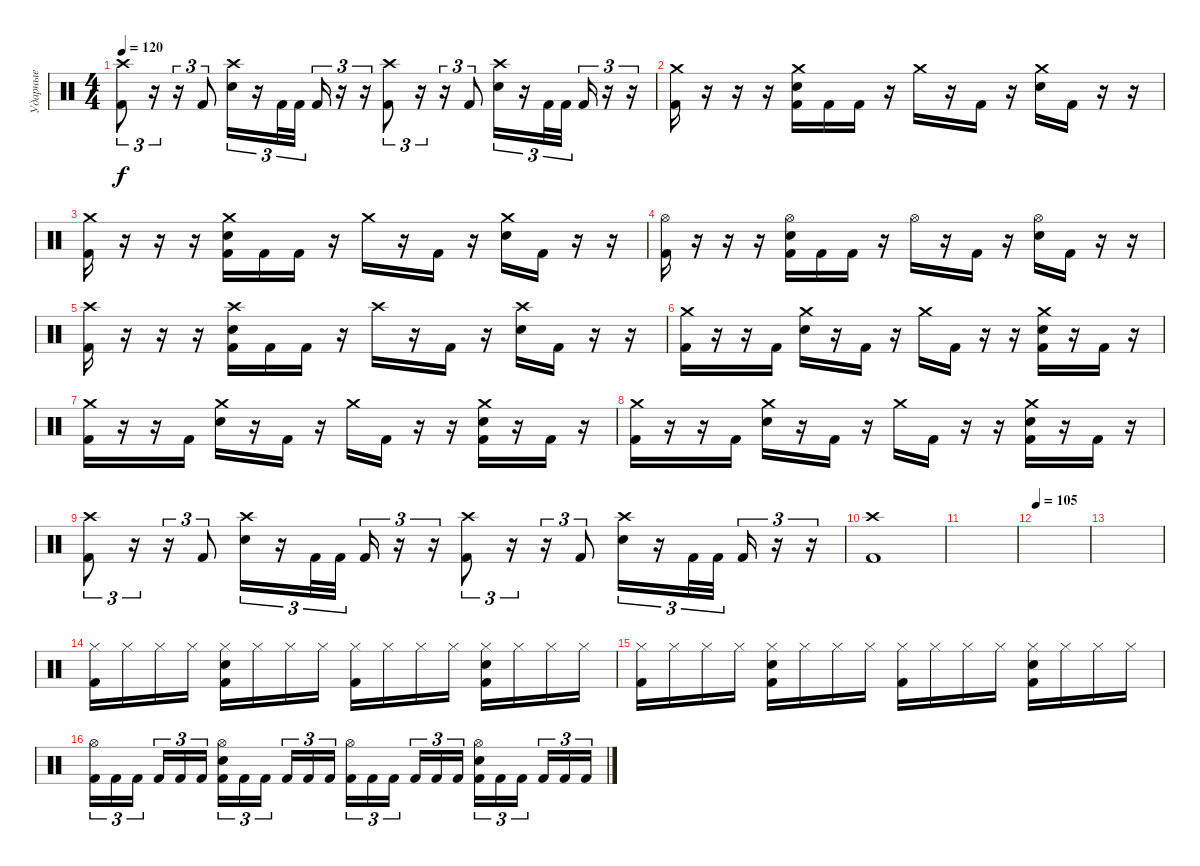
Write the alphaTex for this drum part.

\track ("Ударные" "Ударные") {instrument percussion}
\staff {score}
\articulation defaults
\ts (4 4)
\tempo 120
\clef neutral
\ks c
("Crash high (hit)" "Kick (hit) 2").8{tu (3 2) dy f} r.16{tu (3 2)} r.16{tu (3 2)} "Kick (hit) 2".8{tu (3 2)} ("Crash high (hit)" "Electric Snare (hit)").16{tu (3 2)} r.16{tu (3 2)} "Kick (hit) 2".32{tu (3 2)} "Kick (hit) 2".32{tu (3 2) beam splitsecondary} "Kick (hit) 2".16{tu (3 2)} r.16{tu (3 2)} r.16{tu (3 2)} ("Crash high (hit)" "Kick (hit) 2").8{tu (3 2)} r.16{tu (3 2)} r.16{tu (3 2)} "Kick (hit) 2".8{tu (3 2)} ("Crash high (hit)" "Electric Snare (hit)").16{tu (3 2)} r.16{tu (3 2)} "Kick (hit) 2".32{tu (3 2)} "Kick (hit) 2".32{tu (3 2) beam splitsecondary} "Kick (hit) 2".16{tu (3 2)} r.16{tu (3 2)} r.16{tu (3 2)} |
("Crash medium (hit)" "Kick (hit) 2").16 r.16 r.16 r.16 ("Crash medium (hit)" "Electric Snare (hit)" "Kick (hit) 2").16 "Kick (hit) 2".16 "Kick (hit) 2".16 r.16 "Crash medium (hit)".16 r.16 "Kick (hit) 2".16 r.16 ("Crash medium (hit)" "Electric Snare (hit)").16 "Kick (hit) 2".16 r.16 r.16 |
("Crash medium (hit)" "Kick (hit) 2").16 r.16 r.16 r.16 ("Crash medium (hit)" "Electric Snare (hit)" "Kick (hit) 2").16 "Kick (hit) 2".16 "Kick (hit) 2".16 r.16 "Crash medium (hit)".16 r.16 "Kick (hit) 2".16 r.16 ("Crash medium (hit)" "Electric Snare (hit)").16 "Kick (hit) 2".16 r.16 r.16 |
("Hi-Hat (open)" "Kick (hit) 2").16 r.16 r.16 r.16 ("Hi-Hat (open)" "Electric Snare (hit)" "Kick (hit) 2").16 "Kick (hit) 2".16 "Kick (hit) 2".16 r.16 "Hi-Hat (open)".16 r.16 "Kick (hit) 2".16 r.16 ("Hi-Hat (open)" "Electric Snare (hit)").16 "Kick (hit) 2".16 r.16 r.16 |
("Crash high (hit)" "Kick (hit) 2").16 r.16 r.16 r.16 ("Crash high (hit)" "Electric Snare (hit)" "Kick (hit) 2").16 "Kick (hit) 2".16 "Kick (hit) 2".16 r.16 "Crash high (hit)".16 r.16 "Kick (hit) 2".16 r.16 ("Crash high (hit)" "Electric Snare (hit)").16 "Kick (hit) 2".16 r.16 r.16 |
("Crash medium (hit)" "Kick (hit) 2").16 r.16 r.16 "Kick (hit) 2".16 ("Crash medium (hit)" "Electric Snare (hit)").16 r.16 "Kick (hit) 2".16 r.16 "Crash medium (hit)".16 "Kick (hit) 2".16 r.16 r.16 ("Crash medium (hit)" "Electric Snare (hit)" "Kick (hit) 2").16 r.16 "Kick (hit) 2".16 r.16 |
("Crash medium (hit)" "Kick (hit) 2").16 r.16 r.16 "Kick (hit) 2".16 ("Crash medium (hit)" "Electric Snare (hit)").16 r.16 "Kick (hit) 2".16 r.16 "Crash medium (hit)".16 "Kick (hit) 2".16 r.16 r.16 ("Crash medium (hit)" "Electric Snare (hit)" "Kick (hit) 2").16 r.16 "Kick (hit) 2".16 r.16 |
("Crash medium (hit)" "Kick (hit) 2").16 r.16 r.16 "Kick (hit) 2".16 ("Crash medium (hit)" "Electric Snare (hit)").16 r.16 "Kick (hit) 2".16 r.16 "Crash medium (hit)".16 "Kick (hit) 2".16 r.16 r.16 ("Crash medium (hit)" "Electric Snare (hit)" "Kick (hit) 2").16 r.16 "Kick (hit) 2".16 r.16 |
("Crash high (hit)" "Kick (hit) 2").8{tu (3 2)} r.16{tu (3 2)} r.16{tu (3 2)} "Kick (hit) 2".8{tu (3 2)} ("Crash high (hit)" "Electric Snare (hit)").16{tu (3 2)} r.16{tu (3 2)} "Kick (hit) 2".32{tu (3 2)} "Kick (hit) 2".32{tu (3 2) beam splitsecondary} "Kick (hit) 2".16{tu (3 2)} r.16{tu (3 2)} r.16{tu (3 2)} ("Crash high (hit)" "Kick (hit) 2").8{tu (3 2)} r.16{tu (3 2)} r.16{tu (3 2)} "Kick (hit) 2".8{tu (3 2)} ("Crash high (hit)" "Electric Snare (hit)").16{tu (3 2)} r.16{tu (3 2)} "Kick (hit) 2".32{tu (3 2)} "Kick (hit) 2".32{tu (3 2) beam splitsecondary} "Kick (hit) 2".16{tu (3 2)} r.16{tu (3 2)} r.16{tu (3 2)} |
("Crash high (hit)" "Kick (hit) 2").1 |
|
\tempo 105
|
|
("Hi-Hat (closed)" "Kick (hit) 2").16 "Hi-Hat (closed)".16 "Hi-Hat (closed)".16 "Hi-Hat (closed)".16 ("Hi-Hat (closed)" "Electric Snare (hit)" "Kick (hit) 2").16 "Hi-Hat (closed)".16 "Hi-Hat (closed)".16 "Hi-Hat (closed)".16 ("Hi-Hat (closed)" "Kick (hit) 2").16 "Hi-Hat (closed)".16 "Hi-Hat (closed)".16 "Hi-Hat (closed)".16 ("Hi-Hat (closed)" "Electric Snare (hit)" "Kick (hit) 2").16 "Hi-Hat (closed)".16 "Hi-Hat (closed)".16 "Hi-Hat (closed)".16 |
("Hi-Hat (closed)" "Kick (hit) 2").16 "Hi-Hat (closed)".16 "Hi-Hat (closed)".16 "Hi-Hat (closed)".16 ("Hi-Hat (closed)" "Electric Snare (hit)" "Kick (hit) 2").16 "Hi-Hat (closed)".16 "Hi-Hat (closed)".16 "Hi-Hat (closed)".16 ("Hi-Hat (closed)" "Kick (hit) 2").16 "Hi-Hat (closed)".16 "Hi-Hat (closed)".16 "Hi-Hat (closed)".16 ("Hi-Hat (closed)" "Electric Snare (hit)" "Kick (hit) 2").16 "Hi-Hat (closed)".16 "Hi-Hat (closed)".16 "Hi-Hat (closed)".16 |
("Hi-Hat (open)" "Kick (hit) 2").16{tu (3 2)} "Kick (hit) 2".16{tu (3 2)} "Kick (hit) 2".16{tu (3 2) beam splitsecondary} "Kick (hit) 2".16{tu (3 2)} "Kick (hit) 2".16{tu (3 2)} "Kick (hit) 2".16{tu (3 2)} ("Hi-Hat (open)" "Electric Snare (hit)" "Kick (hit) 2").16{tu (3 2)} "Kick (hit) 2".16{tu (3 2)} "Kick (hit) 2".16{tu (3 2) beam splitsecondary} "Kick (hit) 2".16{tu (3 2)} "Kick (hit) 2".16{tu (3 2)} "Kick (hit) 2".16{tu (3 2)} ("Hi-Hat (open)" "Kick (hit) 2").16{tu (3 2)} "Kick (hit) 2".16{tu (3 2)} "Kick (hit) 2".16{tu (3 2) beam splitsecondary} "Kick (hit) 2".16{tu (3 2)} "Kick (hit) 2".16{tu (3 2)} "Kick (hit) 2".16{tu (3 2)} ("Hi-Hat (open)" "Electric Snare (hit)" "Kick (hit) 2").16{tu (3 2)} "Kick (hit) 2".16{tu (3 2)} "Kick (hit) 2".16{tu (3 2) beam splitsecondary} "Kick (hit) 2".16{tu (3 2)} "Kick (hit) 2".16{tu (3 2)} "Kick (hit) 2".16{tu (3 2)}
